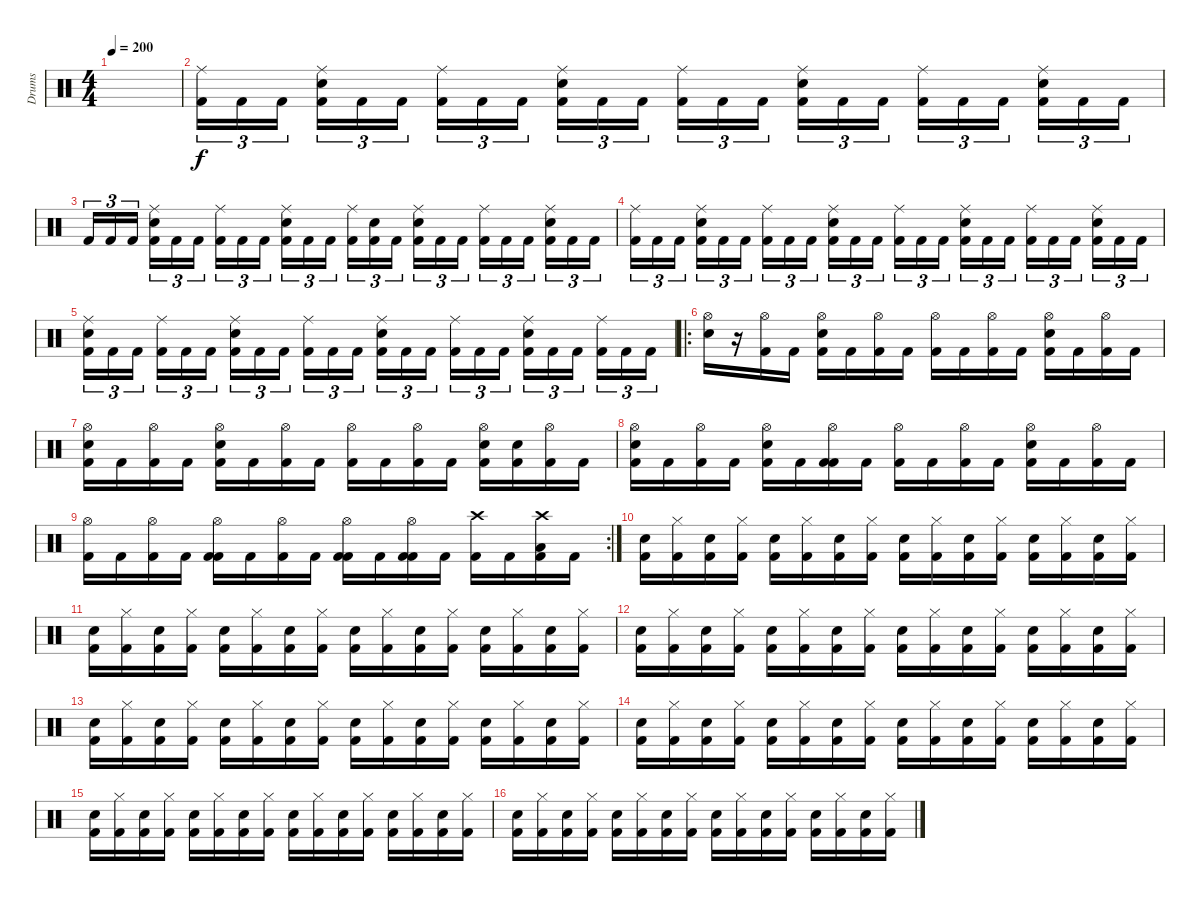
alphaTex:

\track ("Drums" "Drums") {instrument percussion}
\staff {score}
\articulation defaults
\ts (4 4)
\tempo 200
\clef neutral
\ks c
|
("Ride (middle)" "Kick (hit) 2").16{tu (3 2)} "Kick (hit) 2".16{tu (3 2)} "Kick (hit) 2".16{tu (3 2)} ("Ride (middle)" "Snare (hit) 2" "Kick (hit) 2").16{tu (3 2)} "Kick (hit) 2".16{tu (3 2)} "Kick (hit) 2".16{tu (3 2)} ("Ride (middle)" "Kick (hit) 2").16{tu (3 2)} "Kick (hit) 2".16{tu (3 2)} "Kick (hit) 2".16{tu (3 2)} ("Ride (middle)" "Snare (hit) 2" "Kick (hit) 2").16{tu (3 2)} "Kick (hit) 2".16{tu (3 2)} "Kick (hit) 2".16{tu (3 2)} ("Ride (middle)" "Kick (hit) 2").16{tu (3 2)} "Kick (hit) 2".16{tu (3 2)} "Kick (hit) 2".16{tu (3 2)} ("Ride (middle)" "Snare (hit) 2" "Kick (hit) 2").16{tu (3 2)} "Kick (hit) 2".16{tu (3 2)} "Kick (hit) 2".16{tu (3 2)} ("Ride (middle)" "Kick (hit) 2").16{tu (3 2)} "Kick (hit) 2".16{tu (3 2)} "Kick (hit) 2".16{tu (3 2)} ("Ride (middle)" "Snare (hit) 2" "Kick (hit) 2").16{tu (3 2)} "Kick (hit) 2".16{tu (3 2)} "Kick (hit) 2".16{tu (3 2)} |
"Kick (hit) 2".16{tu (3 2)} "Kick (hit) 2".16{tu (3 2)} "Kick (hit) 2".16{tu (3 2)} ("Ride (middle)" "Snare (hit) 2" "Kick (hit) 2").16{tu (3 2)} "Kick (hit) 2".16{tu (3 2)} "Kick (hit) 2".16{tu (3 2)} ("Ride (middle)" "Kick (hit) 2").16{tu (3 2)} "Kick (hit) 2".16{tu (3 2)} "Kick (hit) 2".16{tu (3 2)} ("Ride (middle)" "Snare (hit) 2" "Kick (hit) 2").16{tu (3 2)} "Kick (hit) 2".16{tu (3 2)} "Kick (hit) 2".16{tu (3 2)} ("Ride (middle)" "Kick (hit) 2").16{tu (3 2)} ("Snare (hit)" "Kick (hit) 2").16{tu (3 2)} "Kick (hit) 2".16{tu (3 2)} ("Ride (middle)" "Snare (hit) 2" "Kick (hit) 2").16{tu (3 2)} "Kick (hit) 2".16{tu (3 2)} "Kick (hit) 2".16{tu (3 2)} ("Ride (middle)" "Kick (hit) 2").16{tu (3 2)} "Kick (hit) 2".16{tu (3 2)} "Kick (hit) 2".16{tu (3 2)} ("Ride (middle)" "Snare (hit) 2" "Kick (hit) 2").16{tu (3 2)} "Kick (hit) 2".16{tu (3 2)} "Kick (hit) 2".16{tu (3 2)} |
("Ride (middle)" "Kick (hit) 2").16{tu (3 2)} "Kick (hit) 2".16{tu (3 2)} "Kick (hit) 2".16{tu (3 2)} ("Ride (middle)" "Snare (hit) 2" "Kick (hit) 2").16{tu (3 2)} "Kick (hit) 2".16{tu (3 2)} "Kick (hit) 2".16{tu (3 2)} ("Ride (middle)" "Kick (hit) 2").16{tu (3 2)} "Kick (hit) 2".16{tu (3 2)} "Kick (hit) 2".16{tu (3 2)} ("Ride (middle)" "Snare (hit) 2" "Kick (hit) 2").16{tu (3 2)} "Kick (hit) 2".16{tu (3 2)} "Kick (hit) 2".16{tu (3 2)} ("Ride (middle)" "Kick (hit) 2").16{tu (3 2)} "Kick (hit) 2".16{tu (3 2)} "Kick (hit) 2".16{tu (3 2)} ("Ride (middle)" "Snare (hit) 2" "Kick (hit) 2").16{tu (3 2)} "Kick (hit) 2".16{tu (3 2)} "Kick (hit) 2".16{tu (3 2)} ("Ride (middle)" "Kick (hit) 2").16{tu (3 2)} "Kick (hit) 2".16{tu (3 2)} "Kick (hit) 2".16{tu (3 2)} ("Ride (middle)" "Snare (hit) 2" "Kick (hit) 2").16{tu (3 2)} "Kick (hit) 2".16{tu (3 2)} "Kick (hit) 2".16{tu (3 2)} |
("Ride (middle)" "Snare (hit) 2" "Kick (hit) 2").16{tu (3 2)} "Kick (hit) 2".16{tu (3 2)} "Kick (hit) 2".16{tu (3 2)} ("Ride (middle)" "Kick (hit) 2").16{tu (3 2)} "Kick (hit) 2".16{tu (3 2)} "Kick (hit) 2".16{tu (3 2)} ("Ride (middle)" "Snare (hit) 2" "Kick (hit) 2").16{tu (3 2)} "Kick (hit) 2".16{tu (3 2)} "Kick (hit) 2".16{tu (3 2)} ("Ride (middle)" "Kick (hit) 2").16{tu (3 2)} "Kick (hit) 2".16{tu (3 2)} "Kick (hit) 2".16{tu (3 2)} ("Ride (middle)" "Snare (hit) 2" "Kick (hit) 2").16{tu (3 2)} "Kick (hit) 2".16{tu (3 2)} "Kick (hit) 2".16{tu (3 2)} ("Ride (middle)" "Kick (hit) 2").16{tu (3 2)} "Kick (hit) 2".16{tu (3 2)} "Kick (hit) 2".16{tu (3 2)} ("Ride (middle)" "Snare (hit) 2" "Kick (hit) 2").16{tu (3 2)} "Kick (hit) 2".16{tu (3 2)} "Kick (hit) 2".16{tu (3 2)} ("Ride (middle)" "Kick (hit) 2").16{tu (3 2)} "Kick (hit) 2".16{tu (3 2)} "Kick (hit) 2".16{tu (3 2)} |
\ro
("Hi-Hat (open)" "Snare (hit) 2").16 r.16 ("Hi-Hat (open)" "Kick (hit) 2").16 "Kick (hit) 2".16 ("Hi-Hat (open)" "Snare (hit) 2" "Kick (hit) 2").16 "Kick (hit) 2".16 ("Hi-Hat (open)" "Kick (hit) 2").16 "Kick (hit) 2".16 ("Hi-Hat (open)" "Kick (hit) 2").16 "Kick (hit) 2".16 ("Hi-Hat (open)" "Kick (hit) 2").16 "Kick (hit) 2".16 ("Hi-Hat (open)" "Snare (hit) 2" "Kick (hit) 2").16 "Kick (hit) 2".16 ("Hi-Hat (open)" "Kick (hit) 2").16 "Kick (hit) 2".16 |
("Hi-Hat (open)" "Snare (hit) 2" "Kick (hit) 2").16 "Kick (hit) 2".16 ("Hi-Hat (open)" "Kick (hit) 2").16 "Kick (hit) 2".16 ("Hi-Hat (open)" "Snare (hit) 2" "Kick (hit) 2").16 "Kick (hit) 2".16 ("Hi-Hat (open)" "Kick (hit) 2").16 "Kick (hit) 2".16 ("Hi-Hat (open)" "Kick (hit) 2").16 "Kick (hit) 2".16 ("Hi-Hat (open)" "Kick (hit) 2").16 "Kick (hit) 2".16 ("Hi-Hat (open)" "Snare (hit) 2" "Kick (hit) 2").16 ("Snare (hit) 2" "Kick (hit) 2").16 ("Hi-Hat (open)" "Kick (hit) 2").16 "Kick (hit) 2".16 |
("Hi-Hat (open)" "Snare (hit) 2" "Kick (hit) 2").16 "Kick (hit) 2".16 ("Hi-Hat (open)" "Kick (hit) 2").16 "Kick (hit) 2".16 ("Hi-Hat (open)" "Snare (hit) 2" "Kick (hit) 2").16 "Kick (hit) 2".16 ("Hi-Hat (open)" "Kick (hit) 2" "Kick (hit) 2").16 "Kick (hit) 2".16 ("Hi-Hat (open)" "Kick (hit) 2").16 "Kick (hit) 2".16 ("Hi-Hat (open)" "Kick (hit) 2").16 "Kick (hit) 2".16 ("Hi-Hat (open)" "Snare (hit) 2" "Kick (hit) 2").16 "Kick (hit) 2".16 ("Hi-Hat (open)" "Kick (hit) 2").16 "Kick (hit) 2".16 |
\rc 2
("Hi-Hat (open)" "Kick (hit) 2").16 "Kick (hit) 2".16 ("Hi-Hat (open)" "Kick (hit) 2").16 "Kick (hit) 2".16 ("Hi-Hat (open)" "Kick (hit) 2" "Kick (hit) 2").16 "Kick (hit) 2".16 ("Hi-Hat (open)" "Kick (hit) 2").16 "Kick (hit) 2".16 ("Hi-Hat (open)" "Kick (hit) 2" "Kick (hit) 2").16 "Kick (hit) 2".16 ("Hi-Hat (open)" "Kick (hit) 2" "Kick (hit) 2").16 "Kick (hit) 2".16 ("Crash high (hit)" "Kick (hit) 2").16 "Kick (hit) 2".16 ("Crash high (hit)" "Low Floor Tom (hit)" "Kick (hit) 2").16 "Kick (hit) 2".16 |
("Snare (hit) 2" "Kick (hit) 2").16 ("Hi-Hat (closed)" "Kick (hit) 2").16 ("Snare (hit) 2" "Kick (hit) 2").16 ("Hi-Hat (closed)" "Kick (hit) 2").16 ("Snare (hit) 2" "Kick (hit) 2").16 ("Hi-Hat (closed)" "Kick (hit) 2").16 ("Snare (hit) 2" "Kick (hit) 2").16 ("Hi-Hat (closed)" "Kick (hit) 2").16 ("Snare (hit) 2" "Kick (hit) 2").16 ("Hi-Hat (closed)" "Kick (hit) 2").16 ("Snare (hit) 2" "Kick (hit) 2").16 ("Hi-Hat (closed)" "Kick (hit) 2").16 ("Snare (hit) 2" "Kick (hit) 2").16 ("Hi-Hat (closed)" "Kick (hit) 2").16 ("Snare (hit) 2" "Kick (hit) 2").16 ("Hi-Hat (closed)" "Kick (hit) 2").16 |
("Snare (hit) 2" "Kick (hit) 2").16 ("Hi-Hat (closed)" "Kick (hit) 2").16 ("Snare (hit) 2" "Kick (hit) 2").16 ("Hi-Hat (closed)" "Kick (hit) 2").16 ("Snare (hit) 2" "Kick (hit) 2").16 ("Hi-Hat (closed)" "Kick (hit) 2").16 ("Snare (hit) 2" "Kick (hit) 2").16 ("Hi-Hat (closed)" "Kick (hit) 2").16 ("Snare (hit) 2" "Kick (hit) 2").16 ("Hi-Hat (closed)" "Kick (hit) 2").16 ("Snare (hit) 2" "Kick (hit) 2").16 ("Hi-Hat (closed)" "Kick (hit) 2").16 ("Snare (hit) 2" "Kick (hit) 2").16 ("Hi-Hat (closed)" "Kick (hit) 2").16 ("Snare (hit) 2" "Kick (hit) 2").16 ("Hi-Hat (closed)" "Kick (hit) 2").16 |
("Snare (hit) 2" "Kick (hit) 2").16 ("Hi-Hat (closed)" "Kick (hit) 2").16 ("Snare (hit) 2" "Kick (hit) 2").16 ("Hi-Hat (closed)" "Kick (hit) 2").16 ("Snare (hit) 2" "Kick (hit) 2").16 ("Hi-Hat (closed)" "Kick (hit) 2").16 ("Snare (hit) 2" "Kick (hit) 2").16 ("Hi-Hat (closed)" "Kick (hit) 2").16 ("Snare (hit) 2" "Kick (hit) 2").16 ("Hi-Hat (closed)" "Kick (hit) 2").16 ("Snare (hit) 2" "Kick (hit) 2").16 ("Hi-Hat (closed)" "Kick (hit) 2").16 ("Snare (hit) 2" "Kick (hit) 2").16 ("Hi-Hat (closed)" "Kick (hit) 2").16 ("Snare (hit) 2" "Kick (hit) 2").16 ("Hi-Hat (closed)" "Kick (hit) 2").16 |
("Snare (hit) 2" "Kick (hit) 2").16 ("Hi-Hat (closed)" "Kick (hit) 2").16 ("Snare (hit) 2" "Kick (hit) 2").16 ("Hi-Hat (closed)" "Kick (hit) 2").16 ("Snare (hit) 2" "Kick (hit) 2").16 ("Hi-Hat (closed)" "Kick (hit) 2").16 ("Snare (hit) 2" "Kick (hit) 2").16 ("Hi-Hat (closed)" "Kick (hit) 2").16 ("Snare (hit) 2" "Kick (hit) 2").16 ("Hi-Hat (closed)" "Kick (hit) 2").16 ("Snare (hit) 2" "Kick (hit) 2").16 ("Hi-Hat (closed)" "Kick (hit) 2").16 ("Snare (hit) 2" "Kick (hit) 2").16 ("Hi-Hat (closed)" "Kick (hit) 2").16 ("Snare (hit) 2" "Kick (hit) 2").16 ("Hi-Hat (closed)" "Kick (hit) 2").16 |
("Snare (hit) 2" "Kick (hit) 2").16 ("Hi-Hat (closed)" "Kick (hit) 2").16 ("Snare (hit) 2" "Kick (hit) 2").16 ("Hi-Hat (closed)" "Kick (hit) 2").16 ("Snare (hit) 2" "Kick (hit) 2").16 ("Hi-Hat (closed)" "Kick (hit) 2").16 ("Snare (hit) 2" "Kick (hit) 2").16 ("Hi-Hat (closed)" "Kick (hit) 2").16 ("Snare (hit) 2" "Kick (hit) 2").16 ("Hi-Hat (closed)" "Kick (hit) 2").16 ("Snare (hit) 2" "Kick (hit) 2").16 ("Hi-Hat (closed)" "Kick (hit) 2").16 ("Snare (hit) 2" "Kick (hit) 2").16 ("Hi-Hat (closed)" "Kick (hit) 2").16 ("Snare (hit) 2" "Kick (hit) 2").16 ("Hi-Hat (closed)" "Kick (hit) 2").16 |
("Snare (hit) 2" "Kick (hit) 2").16 ("Hi-Hat (closed)" "Kick (hit) 2").16 ("Snare (hit) 2" "Kick (hit) 2").16 ("Hi-Hat (closed)" "Kick (hit) 2").16 ("Snare (hit) 2" "Kick (hit) 2").16 ("Hi-Hat (closed)" "Kick (hit) 2").16 ("Snare (hit) 2" "Kick (hit) 2").16 ("Hi-Hat (closed)" "Kick (hit) 2").16 ("Snare (hit) 2" "Kick (hit) 2").16 ("Hi-Hat (closed)" "Kick (hit) 2").16 ("Snare (hit) 2" "Kick (hit) 2").16 ("Hi-Hat (closed)" "Kick (hit) 2").16 ("Snare (hit) 2" "Kick (hit) 2").16 ("Hi-Hat (closed)" "Kick (hit) 2").16 ("Snare (hit) 2" "Kick (hit) 2").16 ("Hi-Hat (closed)" "Kick (hit) 2").16 |
("Snare (hit) 2" "Kick (hit) 2").16 ("Hi-Hat (closed)" "Kick (hit) 2").16 ("Snare (hit) 2" "Kick (hit) 2").16 ("Hi-Hat (closed)" "Kick (hit) 2").16 ("Snare (hit) 2" "Kick (hit) 2").16 ("Hi-Hat (closed)" "Kick (hit) 2").16 ("Snare (hit) 2" "Kick (hit) 2").16 ("Hi-Hat (closed)" "Kick (hit) 2").16 ("Snare (hit) 2" "Kick (hit) 2").16 ("Hi-Hat (closed)" "Kick (hit) 2").16 ("Snare (hit) 2" "Kick (hit) 2").16 ("Hi-Hat (closed)" "Kick (hit) 2").16 ("Snare (hit) 2" "Kick (hit) 2").16 ("Hi-Hat (closed)" "Kick (hit) 2").16 ("Snare (hit) 2" "Kick (hit) 2").16 ("Hi-Hat (closed)" "Kick (hit) 2").16
